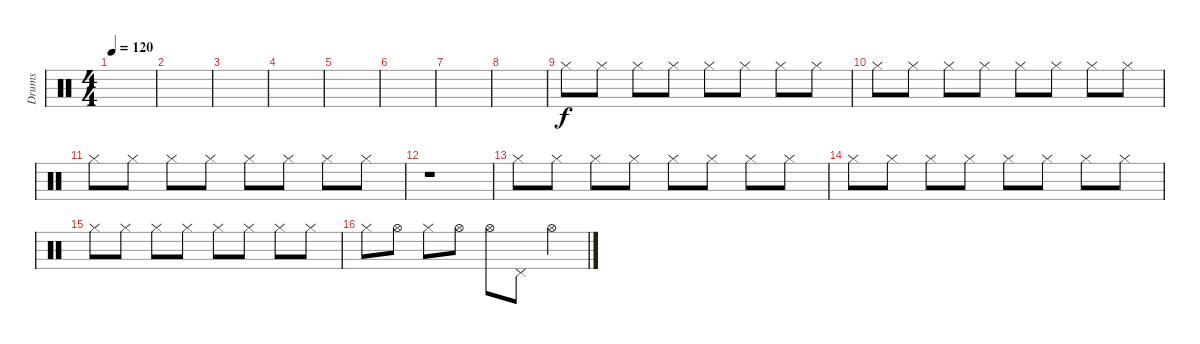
\track ("Drums" "Drums") {instrument percussion}
\staff {score}
\articulation defaults
\ts (4 4)
\tempo 120
\clef neutral
\ks c
|
|
|
|
|
|
|
|
"Hi-Hat (closed)".8 "Hi-Hat (closed)".8 "Hi-Hat (closed)".8 "Hi-Hat (closed)".8 "Hi-Hat (closed)".8 "Hi-Hat (closed)".8 "Hi-Hat (closed)".8{volume 4} "Hi-Hat (closed)".8 |
"Hi-Hat (closed)".8 "Hi-Hat (closed)".8 "Hi-Hat (closed)".8 "Hi-Hat (closed)".8 "Hi-Hat (closed)".8 "Hi-Hat (closed)".8 "Hi-Hat (closed)".8 "Hi-Hat (closed)".8 |
"Hi-Hat (closed)".8 "Hi-Hat (closed)".8 "Hi-Hat (closed)".8 "Hi-Hat (closed)".8 "Hi-Hat (closed)".8 "Hi-Hat (closed)".8 "Hi-Hat (closed)".8 "Hi-Hat (closed)".8 |
r.1 |
"Hi-Hat (closed)".8{volume 13} "Hi-Hat (closed)".8 "Hi-Hat (closed)".8 "Hi-Hat (closed)".8 "Hi-Hat (closed)".8 "Hi-Hat (closed)".8 "Hi-Hat (closed)".8{volume 4} "Hi-Hat (closed)".8 |
"Hi-Hat (closed)".8 "Hi-Hat (closed)".8 "Hi-Hat (closed)".8 "Hi-Hat (closed)".8 "Hi-Hat (closed)".8 "Hi-Hat (closed)".8 "Hi-Hat (closed)".8 "Hi-Hat (closed)".8 |
"Hi-Hat (closed)".8 "Hi-Hat (closed)".8 "Hi-Hat (closed)".8 "Hi-Hat (closed)".8 "Hi-Hat (closed)".8 "Hi-Hat (closed)".8 "Hi-Hat (closed)".8 "Hi-Hat (closed)".8 |
"Hi-Hat (closed)".8 "Hi-Hat (open)".8 "Hi-Hat (closed)".8{volume 13} "Hi-Hat (open)".8 "Hi-Hat (open)".8 "Pedal Hi-Hat (hit)".8 "Hi-Hat (open)".4
